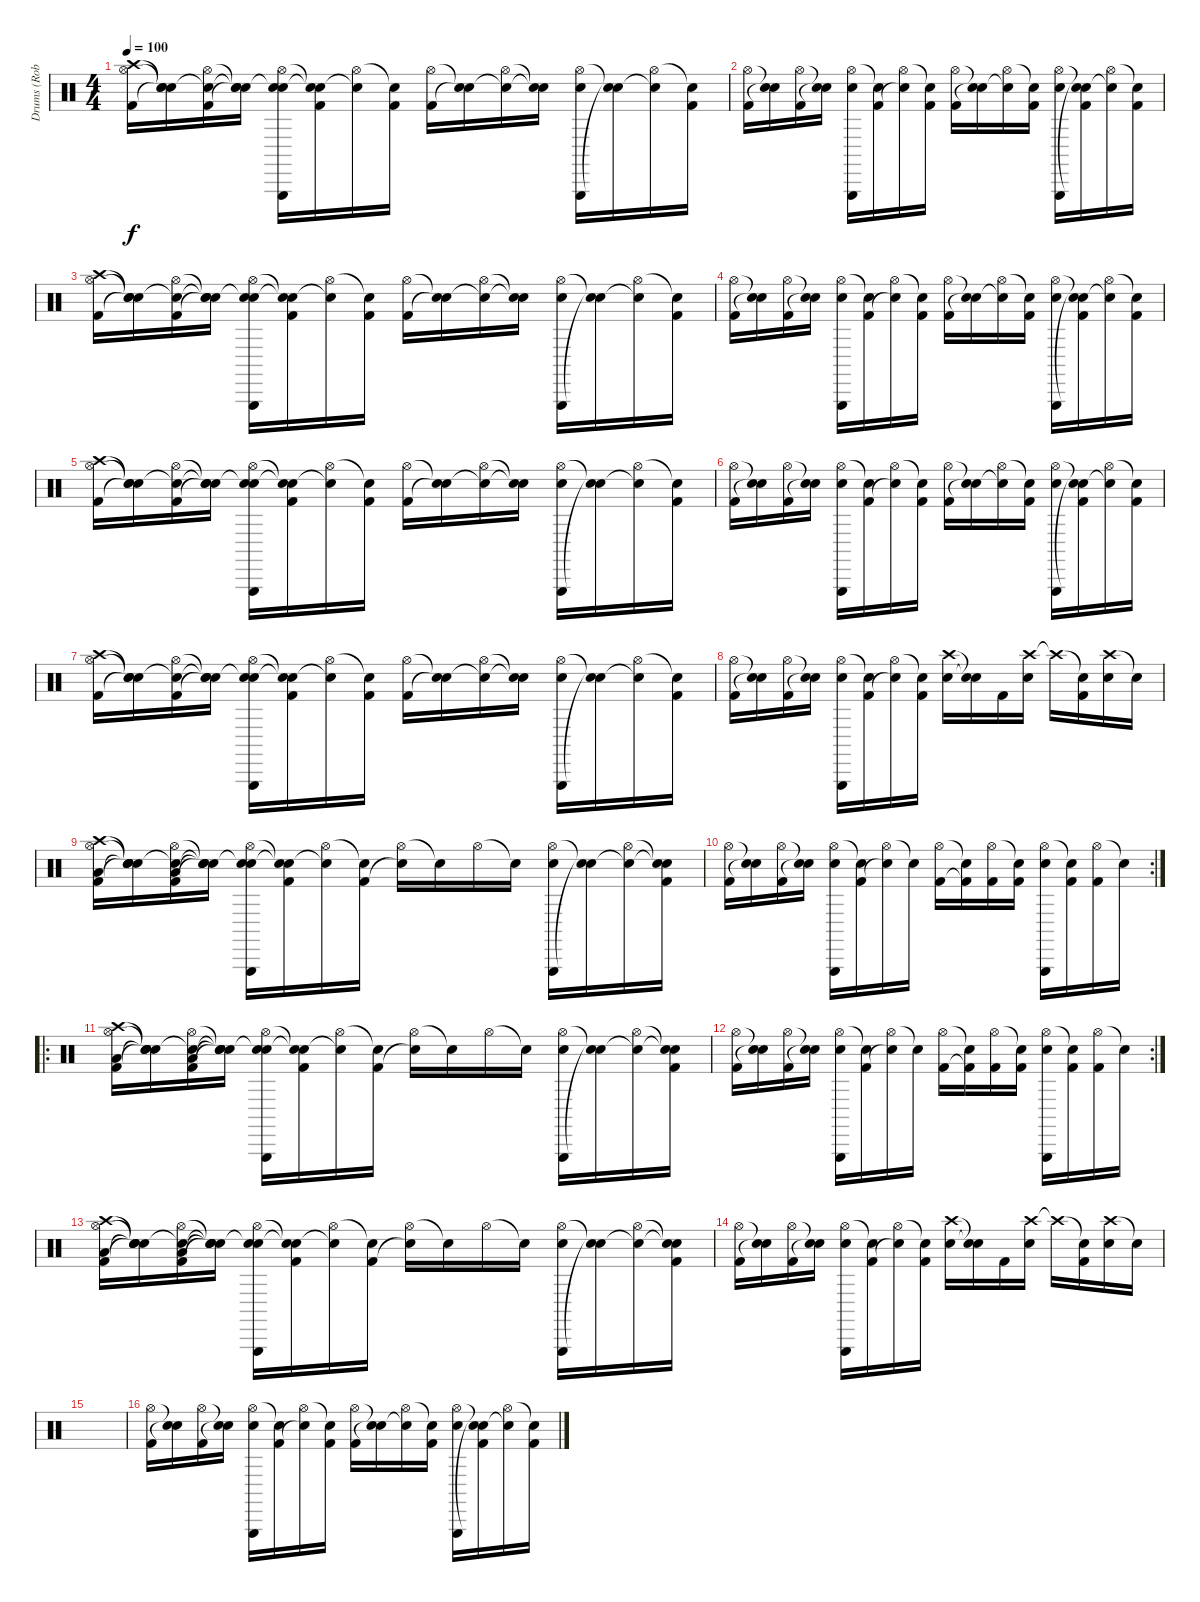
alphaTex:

\track ("Drums (Rob Bourdon)" "Drums (Rob") {instrument percussion}
\staff {score}
\articulation defaults
\ts (4 4)
\tempo 100
\clef neutral
\ks c
("Crash high (hit)" "Hi-Hat (open)" "Kick (hit) 2").16{dy f} ("Snare (hit)"{t} "Snare (hit)"{t} "Snare (hit)"{t}).16 ("Snare (hit)"{t} "Hi-Hat (open)" "Kick (hit) 2").16 ("Snare (hit)"{t} "Snare (hit)"{t} "Snare (hit)"{t}).16 ("Snare (hit)"{t} "Hi-Hat (open)" "Triangle (hit)" "Electric Snare (hit)").16 ("Snare (hit)"{t} "Snare (hit)"{t} "Kick (hit) 2").16 ("Hi-Hat (open)" "Snare (hit)"{t}).16 ("Snare (hit)"{t} "Kick (hit) 2").16 ("Hi-Hat (open)" "Kick (hit) 2").16 ("Snare (hit)"{t} "Snare (hit)"{t}).16 ("Hi-Hat (open)" "Snare (hit)"{t}).16 ("Snare (hit)"{t} "Snare (hit)"{t}).16 ("Hi-Hat (open)" "Triangle (hit)" "Electric Snare (hit)").16 ("Snare (hit)"{t} "Snare (hit)"{t}).16 ("Hi-Hat (open)" "Snare (hit)"{t}).16 ("Snare (hit)"{t} "Kick (hit) 2").16 |
("Hi-Hat (open)" "Kick (hit) 2").16 ("Snare (hit)"{t} "Snare (hit)"{t}).16 ("Hi-Hat (open)" "Kick (hit) 2").16 ("Snare (hit)"{t} "Snare (hit)"{t}).16 ("Hi-Hat (open)" "Triangle (hit)" "Electric Snare (hit)").16 ("Snare (hit)"{t} "Kick (hit) 2").16 ("Hi-Hat (open)" "Snare (hit)"{t}).16 ("Snare (hit)"{t} "Kick (hit) 2").16 ("Hi-Hat (open)" "Kick (hit) 2").16 ("Snare (hit)"{t} "Snare (hit)"{t}).16 ("Hi-Hat (open)" "Snare (hit)"{t}).16 ("Snare (hit)"{t} "Kick (hit) 2").16 ("Hi-Hat (open)" "Triangle (hit)" "Electric Snare (hit)").16 ("Snare (hit)"{t} "Snare (hit)"{t} "Kick (hit) 2").16 ("Hi-Hat (open)" "Snare (hit)"{t}).16 ("Snare (hit)"{t} "Kick (hit) 2").16 |
("Crash high (hit)" "Hi-Hat (open)" "Kick (hit) 2").16 ("Snare (hit)"{t} "Snare (hit)"{t} "Snare (hit)"{t}).16 ("Snare (hit)"{t} "Hi-Hat (open)" "Kick (hit) 2").16 ("Snare (hit)"{t} "Snare (hit)"{t} "Snare (hit)"{t}).16 ("Snare (hit)"{t} "Hi-Hat (open)" "Triangle (hit)" "Electric Snare (hit)").16 ("Snare (hit)"{t} "Snare (hit)"{t} "Kick (hit) 2").16 ("Hi-Hat (open)" "Snare (hit)"{t}).16 ("Snare (hit)"{t} "Kick (hit) 2").16 ("Hi-Hat (open)" "Kick (hit) 2").16 ("Snare (hit)"{t} "Snare (hit)"{t}).16 ("Hi-Hat (open)" "Snare (hit)"{t}).16 ("Snare (hit)"{t} "Snare (hit)"{t}).16 ("Hi-Hat (open)" "Triangle (hit)" "Electric Snare (hit)").16 ("Snare (hit)"{t} "Snare (hit)"{t}).16 ("Hi-Hat (open)" "Snare (hit)"{t}).16 ("Snare (hit)"{t} "Kick (hit) 2").16 |
("Hi-Hat (open)" "Kick (hit) 2").16 ("Snare (hit)"{t} "Snare (hit)"{t}).16 ("Hi-Hat (open)" "Kick (hit) 2").16 ("Snare (hit)"{t} "Snare (hit)"{t}).16 ("Hi-Hat (open)" "Triangle (hit)" "Electric Snare (hit)").16 ("Snare (hit)"{t} "Kick (hit) 2").16 ("Hi-Hat (open)" "Snare (hit)"{t}).16 ("Snare (hit)"{t} "Kick (hit) 2").16 ("Hi-Hat (open)" "Kick (hit) 2").16 ("Snare (hit)"{t} "Snare (hit)"{t}).16 ("Hi-Hat (open)" "Snare (hit)"{t}).16 ("Snare (hit)"{t} "Kick (hit) 2").16 ("Hi-Hat (open)" "Triangle (hit)" "Electric Snare (hit)").16 ("Snare (hit)"{t} "Snare (hit)"{t} "Kick (hit) 2").16 ("Hi-Hat (open)" "Snare (hit)"{t}).16 ("Snare (hit)"{t} "Kick (hit) 2").16 |
("Crash high (hit)" "Hi-Hat (open)" "Kick (hit) 2").16 ("Snare (hit)"{t} "Snare (hit)"{t} "Snare (hit)"{t}).16 ("Snare (hit)"{t} "Hi-Hat (open)" "Kick (hit) 2").16 ("Snare (hit)"{t} "Snare (hit)"{t} "Snare (hit)"{t}).16 ("Snare (hit)"{t} "Hi-Hat (open)" "Triangle (hit)" "Electric Snare (hit)").16 ("Snare (hit)"{t} "Snare (hit)"{t} "Kick (hit) 2").16 ("Hi-Hat (open)" "Snare (hit)"{t}).16 ("Snare (hit)"{t} "Kick (hit) 2").16 ("Hi-Hat (open)" "Kick (hit) 2").16 ("Snare (hit)"{t} "Snare (hit)"{t}).16 ("Hi-Hat (open)" "Snare (hit)"{t}).16 ("Snare (hit)"{t} "Snare (hit)"{t}).16 ("Hi-Hat (open)" "Triangle (hit)" "Electric Snare (hit)").16 ("Snare (hit)"{t} "Snare (hit)"{t}).16 ("Hi-Hat (open)" "Snare (hit)"{t}).16 ("Snare (hit)"{t} "Kick (hit) 2").16 |
("Hi-Hat (open)" "Kick (hit) 2").16 ("Snare (hit)"{t} "Snare (hit)"{t}).16 ("Hi-Hat (open)" "Kick (hit) 2").16 ("Snare (hit)"{t} "Snare (hit)"{t}).16 ("Hi-Hat (open)" "Triangle (hit)" "Electric Snare (hit)").16 ("Snare (hit)"{t} "Kick (hit) 2").16 ("Hi-Hat (open)" "Snare (hit)"{t}).16 ("Snare (hit)"{t} "Kick (hit) 2").16 ("Hi-Hat (open)" "Kick (hit) 2").16 ("Snare (hit)"{t} "Snare (hit)"{t}).16 ("Hi-Hat (open)" "Snare (hit)"{t}).16 ("Snare (hit)"{t} "Kick (hit) 2").16 ("Hi-Hat (open)" "Triangle (hit)" "Electric Snare (hit)").16 ("Snare (hit)"{t} "Snare (hit)"{t} "Kick (hit) 2").16 ("Hi-Hat (open)" "Snare (hit)"{t}).16 ("Snare (hit)"{t} "Kick (hit) 2").16 |
("Crash high (hit)" "Hi-Hat (open)" "Kick (hit) 2").16 ("Snare (hit)"{t} "Snare (hit)"{t} "Snare (hit)"{t}).16 ("Snare (hit)"{t} "Hi-Hat (open)" "Kick (hit) 2").16 ("Snare (hit)"{t} "Snare (hit)"{t} "Snare (hit)"{t}).16 ("Snare (hit)"{t} "Hi-Hat (open)" "Triangle (hit)" "Electric Snare (hit)").16 ("Snare (hit)"{t} "Snare (hit)"{t} "Kick (hit) 2").16 ("Hi-Hat (open)" "Snare (hit)"{t}).16 ("Snare (hit)"{t} "Kick (hit) 2").16 ("Hi-Hat (open)" "Kick (hit) 2").16 ("Snare (hit)"{t} "Snare (hit)"{t}).16 ("Hi-Hat (open)" "Snare (hit)"{t}).16 ("Snare (hit)"{t} "Snare (hit)"{t}).16 ("Hi-Hat (open)" "Triangle (hit)" "Electric Snare (hit)").16 ("Snare (hit)"{t} "Snare (hit)"{t}).16 ("Hi-Hat (open)" "Snare (hit)"{t}).16 ("Snare (hit)"{t} "Kick (hit) 2").16 |
("Hi-Hat (open)" "Kick (hit) 2").16 ("Snare (hit)"{t} "Snare (hit)"{t}).16 ("Hi-Hat (open)" "Kick (hit) 2").16 ("Snare (hit)"{t} "Snare (hit)"{t}).16 ("Hi-Hat (open)" "Triangle (hit)" "Electric Snare (hit)").16 ("Snare (hit)"{t} "Kick (hit) 2").16 ("Hi-Hat (open)" "Snare (hit)"{t}).16 ("Snare (hit)"{t} "Kick (hit) 2").16 ("Crash high (hit)" "Electric Snare (hit)").16 ("Snare (hit)"{t} "Snare (hit)"{t}).16 "Kick (hit) 2".16 ("Crash high (hit)" "Electric Snare (hit)").16 "Crash high (hit)"{t}.16 ("Snare (hit)"{t} "Kick (hit) 2").16 ("Crash high (hit)" "Electric Snare (hit)").16 "Snare (hit)"{t}.16 |
("Crash high (hit)" "Hi-Hat (open)" "Low Tom (hit)" "Kick (hit) 2").16 ("Snare (hit)"{t} "Snare (hit)"{t} "Snare (hit)"{t} "Snare (hit)"{t}).16 ("Snare (hit)"{t} "Hi-Hat (open)" "Low Tom (hit)" "Kick (hit) 2").16 ("Snare (hit)"{t} "Snare (hit)"{t} "Snare (hit)"{t} "Snare (hit)"{t}).16 ("Snare (hit)"{t} "Hi-Hat (open)" "Triangle (hit)" "Electric Snare (hit)").16 ("Snare (hit)"{t} "Snare (hit)"{t} "Kick (hit) 2").16 ("Hi-Hat (open)" "Snare (hit)"{t}).16 ("Snare (hit)"{t} "Kick (hit) 2").16 ("Hi-Hat (open)" "Snare (hit)"{t}).16 "Snare (hit)"{t}.16 "Hi-Hat (open)".16 "Snare (hit)"{t}.16 ("Hi-Hat (open)" "Triangle (hit)" "Electric Snare (hit)").16 ("Snare (hit)"{t} "Snare (hit)"{t}).16 ("Hi-Hat (open)" "Snare (hit)"{t}).16 ("Snare (hit)"{t} "Snare (hit)"{t} "Kick (hit) 2").16 |
\rc 2
("Hi-Hat (open)" "Kick (hit) 2").16 ("Snare (hit)"{t} "Snare (hit)"{t}).16 ("Hi-Hat (open)" "Kick (hit) 2").16 ("Snare (hit)"{t} "Snare (hit)"{t}).16 ("Hi-Hat (open)" "Triangle (hit)" "Electric Snare (hit)").16 ("Snare (hit)"{t} "Kick (hit) 2").16 ("Hi-Hat (open)" "Snare (hit)"{t}).16 "Snare (hit)"{t}.16 ("Hi-Hat (open)" "Kick (hit) 2").16 ("Snare (hit)"{t} "Kick (hit) 2"{t}).16 ("Hi-Hat (open)" "Kick (hit) 2").16 ("Snare (hit)"{t} "Kick (hit) 2").16 ("Hi-Hat (open)" "Triangle (hit)" "Electric Snare (hit)").16 ("Snare (hit)"{t} "Kick (hit) 2").16 ("Hi-Hat (open)" "Kick (hit) 2").16 "Snare (hit)"{t}.16 |
\ro
("Crash high (hit)" "Hi-Hat (open)" "Low Tom (hit)" "Kick (hit) 2").16 ("Snare (hit)"{t} "Snare (hit)"{t} "Snare (hit)"{t} "Snare (hit)"{t}).16 ("Snare (hit)"{t} "Hi-Hat (open)" "Low Tom (hit)" "Kick (hit) 2").16 ("Snare (hit)"{t} "Snare (hit)"{t} "Snare (hit)"{t} "Snare (hit)"{t}).16 ("Snare (hit)"{t} "Hi-Hat (open)" "Triangle (hit)" "Electric Snare (hit)").16 ("Snare (hit)"{t} "Snare (hit)"{t} "Kick (hit) 2").16 ("Hi-Hat (open)" "Snare (hit)"{t}).16 ("Snare (hit)"{t} "Kick (hit) 2").16 ("Hi-Hat (open)" "Snare (hit)"{t}).16 "Snare (hit)"{t}.16 "Hi-Hat (open)".16 "Snare (hit)"{t}.16 ("Hi-Hat (open)" "Triangle (hit)" "Electric Snare (hit)").16 ("Snare (hit)"{t} "Snare (hit)"{t}).16 ("Hi-Hat (open)" "Snare (hit)"{t}).16 ("Snare (hit)"{t} "Snare (hit)"{t} "Kick (hit) 2").16 |
\rc 2
("Hi-Hat (open)" "Kick (hit) 2").16 ("Snare (hit)"{t} "Snare (hit)"{t}).16 ("Hi-Hat (open)" "Kick (hit) 2").16 ("Snare (hit)"{t} "Snare (hit)"{t}).16 ("Hi-Hat (open)" "Triangle (hit)" "Electric Snare (hit)").16 ("Snare (hit)"{t} "Kick (hit) 2").16 ("Hi-Hat (open)" "Snare (hit)"{t}).16 "Snare (hit)"{t}.16 ("Hi-Hat (open)" "Kick (hit) 2").16 ("Snare (hit)"{t} "Kick (hit) 2"{t}).16 ("Hi-Hat (open)" "Kick (hit) 2").16 ("Snare (hit)"{t} "Kick (hit) 2").16 ("Hi-Hat (open)" "Triangle (hit)" "Electric Snare (hit)").16 ("Snare (hit)"{t} "Kick (hit) 2").16 ("Hi-Hat (open)" "Kick (hit) 2").16 "Snare (hit)"{t}.16 |
("Crash high (hit)" "Hi-Hat (open)" "Low Tom (hit)" "Kick (hit) 2").16 ("Snare (hit)"{t} "Snare (hit)"{t} "Snare (hit)"{t} "Snare (hit)"{t}).16 ("Snare (hit)"{t} "Hi-Hat (open)" "Low Tom (hit)" "Kick (hit) 2").16 ("Snare (hit)"{t} "Snare (hit)"{t} "Snare (hit)"{t} "Snare (hit)"{t}).16 ("Snare (hit)"{t} "Hi-Hat (open)" "Triangle (hit)" "Electric Snare (hit)").16 ("Snare (hit)"{t} "Snare (hit)"{t} "Kick (hit) 2").16 ("Hi-Hat (open)" "Snare (hit)"{t}).16 ("Snare (hit)"{t} "Kick (hit) 2").16 ("Hi-Hat (open)" "Snare (hit)"{t}).16 "Snare (hit)"{t}.16 "Hi-Hat (open)".16 "Snare (hit)"{t}.16 ("Hi-Hat (open)" "Triangle (hit)" "Electric Snare (hit)").16 ("Snare (hit)"{t} "Snare (hit)"{t}).16 ("Hi-Hat (open)" "Snare (hit)"{t}).16 ("Snare (hit)"{t} "Snare (hit)"{t} "Kick (hit) 2").16 |
("Hi-Hat (open)" "Kick (hit) 2").16 ("Snare (hit)"{t} "Snare (hit)"{t}).16 ("Hi-Hat (open)" "Kick (hit) 2").16 ("Snare (hit)"{t} "Snare (hit)"{t}).16 ("Hi-Hat (open)" "Triangle (hit)" "Electric Snare (hit)").16 ("Snare (hit)"{t} "Kick (hit) 2").16 ("Hi-Hat (open)" "Snare (hit)"{t}).16 ("Snare (hit)"{t} "Kick (hit) 2").16 ("Crash high (hit)" "Electric Snare (hit)").16 ("Snare (hit)"{t} "Snare (hit)"{t}).16 "Kick (hit) 2".16 ("Crash high (hit)" "Electric Snare (hit)").16 "Crash high (hit)"{t}.16 ("Snare (hit)"{t} "Kick (hit) 2").16 ("Crash high (hit)" "Electric Snare (hit)").16 "Snare (hit)"{t}.16 |
|
("Hi-Hat (open)" "Kick (hit) 2").16 ("Snare (hit)"{t} "Snare (hit)"{t}).16 ("Hi-Hat (open)" "Kick (hit) 2").16 ("Snare (hit)"{t} "Snare (hit)"{t}).16 ("Hi-Hat (open)" "Triangle (hit)" "Electric Snare (hit)").16 ("Snare (hit)"{t} "Kick (hit) 2").16 ("Hi-Hat (open)" "Snare (hit)"{t}).16 ("Snare (hit)"{t} "Kick (hit) 2").16 ("Hi-Hat (open)" "Kick (hit) 2").16 ("Snare (hit)"{t} "Snare (hit)"{t}).16 ("Hi-Hat (open)" "Snare (hit)"{t}).16 ("Snare (hit)"{t} "Kick (hit) 2").16 ("Hi-Hat (open)" "Triangle (hit)" "Electric Snare (hit)").16 ("Snare (hit)"{t} "Snare (hit)"{t} "Kick (hit) 2").16 ("Hi-Hat (open)" "Snare (hit)"{t}).16 ("Snare (hit)"{t} "Kick (hit) 2").16
